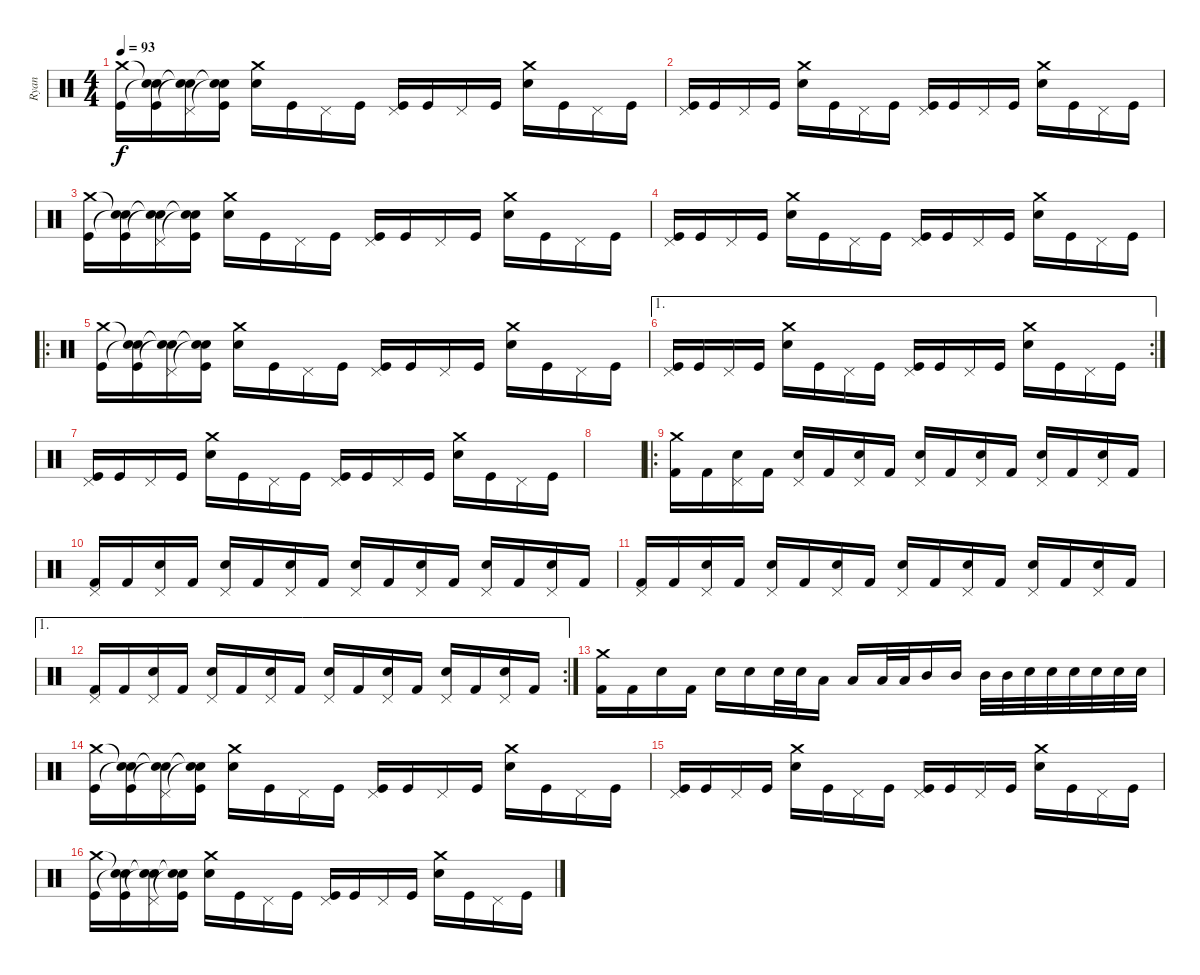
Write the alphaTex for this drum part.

\track ("Ryan" "Ryan") {instrument percussion}
\staff {score}
\articulation defaults
\ts (4 4)
\tempo 93
\clef neutral
\ks c
("Crash medium (hit)" "Kick (hit)").16{dy f} ("Snare (hit)"{t} "Snare (hit)"{t} "Kick (hit)").16 ("Snare (hit)"{t} "Pedal Hi-Hat (hit)" "Snare (hit)"{t}).16 ("Snare (hit)"{t} "Snare (hit)"{t} "Kick (hit)").16 ("Crash medium (hit)" "Electric Snare (hit)").16 "Kick (hit)".16 "Pedal Hi-Hat (hit)".16 "Kick (hit)".16 ("Pedal Hi-Hat (hit)" "Kick (hit)").16 "Kick (hit)".16 "Pedal Hi-Hat (hit)".16 "Kick (hit)".16 ("Crash medium (hit)" "Electric Snare (hit)").16 "Kick (hit)".16 "Pedal Hi-Hat (hit)".16 "Kick (hit)".16 |
("Pedal Hi-Hat (hit)" "Kick (hit)").16 "Kick (hit)".16 "Pedal Hi-Hat (hit)".16 "Kick (hit)".16 ("Crash medium (hit)" "Electric Snare (hit)").16 "Kick (hit)".16 "Pedal Hi-Hat (hit)".16 "Kick (hit)".16 ("Pedal Hi-Hat (hit)" "Kick (hit)").16 "Kick (hit)".16 "Pedal Hi-Hat (hit)".16 "Kick (hit)".16 ("Crash medium (hit)" "Electric Snare (hit)").16 "Kick (hit)".16 "Pedal Hi-Hat (hit)".16 "Kick (hit)".16 |
("Crash medium (hit)" "Kick (hit)").16 ("Snare (hit)"{t} "Snare (hit)"{t} "Kick (hit)").16 ("Snare (hit)"{t} "Pedal Hi-Hat (hit)" "Snare (hit)"{t}).16 ("Snare (hit)"{t} "Snare (hit)"{t} "Kick (hit)").16 ("Crash medium (hit)" "Electric Snare (hit)").16 "Kick (hit)".16 "Pedal Hi-Hat (hit)".16 "Kick (hit)".16 ("Pedal Hi-Hat (hit)" "Kick (hit)").16 "Kick (hit)".16 "Pedal Hi-Hat (hit)".16 "Kick (hit)".16 ("Crash medium (hit)" "Electric Snare (hit)").16 "Kick (hit)".16 "Pedal Hi-Hat (hit)".16 "Kick (hit)".16 |
("Pedal Hi-Hat (hit)" "Kick (hit)").16 "Kick (hit)".16 "Pedal Hi-Hat (hit)".16 "Kick (hit)".16 ("Crash medium (hit)" "Electric Snare (hit)").16 "Kick (hit)".16 "Pedal Hi-Hat (hit)".16 "Kick (hit)".16 ("Pedal Hi-Hat (hit)" "Kick (hit)").16 "Kick (hit)".16 "Pedal Hi-Hat (hit)".16 "Kick (hit)".16 ("Crash medium (hit)" "Electric Snare (hit)").16 "Kick (hit)".16 "Pedal Hi-Hat (hit)".16 "Kick (hit)".16 |
\ro
("Crash medium (hit)" "Kick (hit)").16 ("Snare (hit)"{t} "Snare (hit)"{t} "Kick (hit)").16 ("Snare (hit)"{t} "Pedal Hi-Hat (hit)" "Snare (hit)"{t}).16 ("Snare (hit)"{t} "Snare (hit)"{t} "Kick (hit)").16 ("Crash medium (hit)" "Electric Snare (hit)").16 "Kick (hit)".16 "Pedal Hi-Hat (hit)".16 "Kick (hit)".16 ("Pedal Hi-Hat (hit)" "Kick (hit)").16 "Kick (hit)".16 "Pedal Hi-Hat (hit)".16 "Kick (hit)".16 ("Crash medium (hit)" "Electric Snare (hit)").16 "Kick (hit)".16 "Pedal Hi-Hat (hit)".16 "Kick (hit)".16 |
\ae 1
\rc 2
("Pedal Hi-Hat (hit)" "Kick (hit)").16 "Kick (hit)".16 "Pedal Hi-Hat (hit)".16 "Kick (hit)".16 ("Crash medium (hit)" "Electric Snare (hit)").16 "Kick (hit)".16 "Pedal Hi-Hat (hit)".16 "Kick (hit)".16 ("Pedal Hi-Hat (hit)" "Kick (hit)").16 "Kick (hit)".16 "Pedal Hi-Hat (hit)".16 "Kick (hit)".16 ("Crash medium (hit)" "Electric Snare (hit)").16 "Kick (hit)".16 "Pedal Hi-Hat (hit)".16 "Kick (hit)".16 |
("Pedal Hi-Hat (hit)" "Kick (hit)").16 "Kick (hit)".16 "Pedal Hi-Hat (hit)".16 "Kick (hit)".16 ("Crash medium (hit)" "Electric Snare (hit)").16 "Kick (hit)".16 "Pedal Hi-Hat (hit)".16 "Kick (hit)".16 ("Pedal Hi-Hat (hit)" "Kick (hit)").16 "Kick (hit)".16 "Pedal Hi-Hat (hit)".16 "Kick (hit)".16 ("Crash medium (hit)" "Electric Snare (hit)").16 "Kick (hit)".16 "Pedal Hi-Hat (hit)".16 "Kick (hit)".16 |
|
\ro
("Crash medium (hit)" "Kick (hit) 2").16 "Kick (hit) 2".16 ("Pedal Hi-Hat (hit)" "Electric Snare (hit)").16 "Kick (hit) 2".16 ("Pedal Hi-Hat (hit)" "Electric Snare (hit)").16 "Kick (hit) 2".16 ("Pedal Hi-Hat (hit)" "Electric Snare (hit)").16 "Kick (hit) 2".16 ("Pedal Hi-Hat (hit)" "Electric Snare (hit)").16 "Kick (hit) 2".16 ("Pedal Hi-Hat (hit)" "Electric Snare (hit)").16 "Kick (hit) 2".16 ("Pedal Hi-Hat (hit)" "Electric Snare (hit)").16 "Kick (hit) 2".16 ("Pedal Hi-Hat (hit)" "Electric Snare (hit)").16 "Kick (hit) 2".16 |
("Pedal Hi-Hat (hit)" "Kick (hit) 2").16 "Kick (hit) 2".16 ("Pedal Hi-Hat (hit)" "Electric Snare (hit)").16 "Kick (hit) 2".16 ("Pedal Hi-Hat (hit)" "Electric Snare (hit)").16 "Kick (hit) 2".16 ("Pedal Hi-Hat (hit)" "Electric Snare (hit)").16 "Kick (hit) 2".16 ("Pedal Hi-Hat (hit)" "Electric Snare (hit)").16 "Kick (hit) 2".16 ("Pedal Hi-Hat (hit)" "Electric Snare (hit)").16 "Kick (hit) 2".16 ("Pedal Hi-Hat (hit)" "Electric Snare (hit)").16 "Kick (hit) 2".16 ("Pedal Hi-Hat (hit)" "Electric Snare (hit)").16 "Kick (hit) 2".16 |
("Pedal Hi-Hat (hit)" "Kick (hit) 2").16 "Kick (hit) 2".16 ("Pedal Hi-Hat (hit)" "Electric Snare (hit)").16 "Kick (hit) 2".16 ("Pedal Hi-Hat (hit)" "Electric Snare (hit)").16 "Kick (hit) 2".16 ("Pedal Hi-Hat (hit)" "Electric Snare (hit)").16 "Kick (hit) 2".16 ("Pedal Hi-Hat (hit)" "Electric Snare (hit)").16 "Kick (hit) 2".16 ("Pedal Hi-Hat (hit)" "Electric Snare (hit)").16 "Kick (hit) 2".16 ("Pedal Hi-Hat (hit)" "Electric Snare (hit)").16 "Kick (hit) 2".16 ("Pedal Hi-Hat (hit)" "Electric Snare (hit)").16 "Kick (hit) 2".16 |
\ae 1
\rc 2
("Pedal Hi-Hat (hit)" "Kick (hit) 2").16 "Kick (hit) 2".16 ("Pedal Hi-Hat (hit)" "Electric Snare (hit)").16 "Kick (hit) 2".16 ("Pedal Hi-Hat (hit)" "Electric Snare (hit)").16 "Kick (hit) 2".16 ("Pedal Hi-Hat (hit)" "Electric Snare (hit)").16 "Kick (hit) 2".16 ("Pedal Hi-Hat (hit)" "Electric Snare (hit)").16 "Kick (hit) 2".16 ("Pedal Hi-Hat (hit)" "Electric Snare (hit)").16 "Kick (hit) 2".16 ("Pedal Hi-Hat (hit)" "Electric Snare (hit)").16 "Kick (hit) 2".16 ("Pedal Hi-Hat (hit)" "Electric Snare (hit)").16 "Kick (hit) 2".16 |
("Crash medium (hit)" "Kick (hit) 2").16 "Kick (hit) 2".16 "Electric Snare (hit)".16 "Kick (hit) 2".16 "Electric Snare (hit)".16 "Electric Snare (hit)".16 "Electric Snare (hit)".32 "Electric Snare (hit)".32 "Low Tom (hit)".16 "Low Tom (hit)".16 "Low Tom (hit)".32 "Low Tom (hit)".32 "Mid Tom (hit)".16 "Mid Tom (hit)".16 "Mid Tom (hit)".32 "Mid Tom (hit)".32 "Electric Snare (hit)".32 "Electric Snare (hit)".32 "Electric Snare (hit)".32 "Electric Snare (hit)".32 "Electric Snare (hit)".32 "Electric Snare (hit)".32 |
("Crash medium (hit)" "Kick (hit)").16 ("Snare (hit)"{t} "Snare (hit)"{t} "Kick (hit)").16 ("Snare (hit)"{t} "Pedal Hi-Hat (hit)" "Snare (hit)"{t}).16 ("Snare (hit)"{t} "Snare (hit)"{t} "Kick (hit)").16 ("Crash medium (hit)" "Electric Snare (hit)").16 "Kick (hit)".16 "Pedal Hi-Hat (hit)".16 "Kick (hit)".16 ("Pedal Hi-Hat (hit)" "Kick (hit)").16 "Kick (hit)".16 "Pedal Hi-Hat (hit)".16 "Kick (hit)".16 ("Crash medium (hit)" "Electric Snare (hit)").16 "Kick (hit)".16 "Pedal Hi-Hat (hit)".16 "Kick (hit)".16 |
("Pedal Hi-Hat (hit)" "Kick (hit)").16 "Kick (hit)".16 "Pedal Hi-Hat (hit)".16 "Kick (hit)".16 ("Crash medium (hit)" "Electric Snare (hit)").16 "Kick (hit)".16 "Pedal Hi-Hat (hit)".16 "Kick (hit)".16 ("Pedal Hi-Hat (hit)" "Kick (hit)").16 "Kick (hit)".16 "Pedal Hi-Hat (hit)".16 "Kick (hit)".16 ("Crash medium (hit)" "Electric Snare (hit)").16 "Kick (hit)".16 "Pedal Hi-Hat (hit)".16 "Kick (hit)".16 |
("Crash medium (hit)" "Kick (hit)").16 ("Snare (hit)"{t} "Snare (hit)"{t} "Kick (hit)").16 ("Snare (hit)"{t} "Pedal Hi-Hat (hit)" "Snare (hit)"{t}).16 ("Snare (hit)"{t} "Snare (hit)"{t} "Kick (hit)").16 ("Crash medium (hit)" "Electric Snare (hit)").16 "Kick (hit)".16 "Pedal Hi-Hat (hit)".16 "Kick (hit)".16 ("Pedal Hi-Hat (hit)" "Kick (hit)").16 "Kick (hit)".16 "Pedal Hi-Hat (hit)".16 "Kick (hit)".16 ("Crash medium (hit)" "Electric Snare (hit)").16 "Kick (hit)".16 "Pedal Hi-Hat (hit)".16 "Kick (hit)".16
